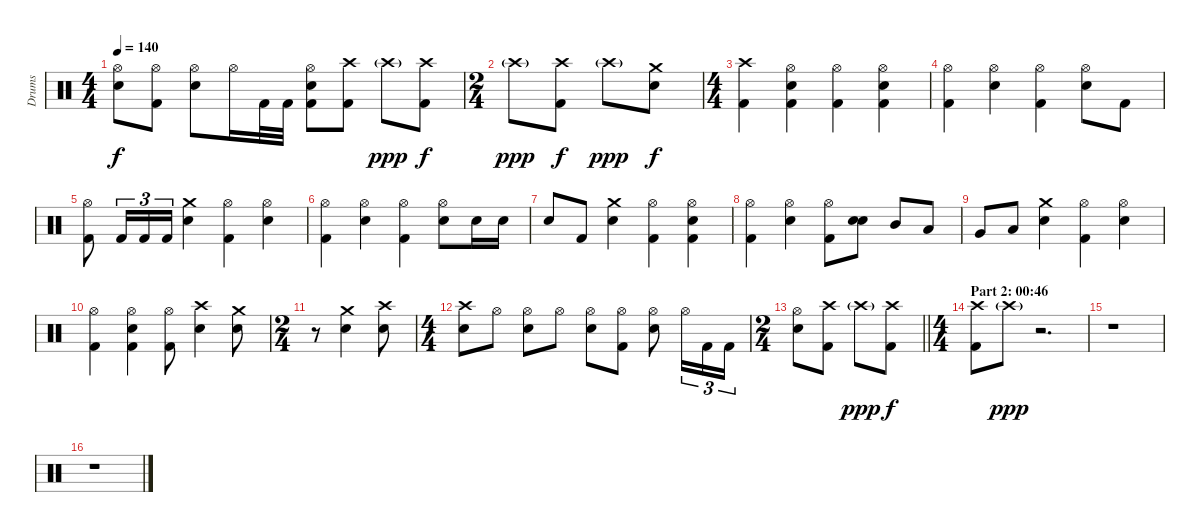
\track ("Drums" "Drums") {instrument percussion}
\staff {score}
\articulation defaults
\ts (4 4)
\tempo 140
\clef neutral
\ks c
("Hi-Hat (open)" "Electric Snare (hit)").8{dy f} ("Hi-Hat (open)" "Kick (hit) 2").8 ("Hi-Hat (open)" "Electric Snare (hit)").8 "Hi-Hat (open)".16 "Kick (hit) 2".32 "Kick (hit) 2".32 ("Hi-Hat (open)" "Electric Snare (hit)" "Kick (hit) 2").8 ("Crash high (hit)" "Kick (hit) 2").8 "Crash high (hit)"{g}.8{dy ppp} ("Crash high (hit)" "Kick (hit) 2").8{dy f} |
\ts (2 4)
"Crash high (hit)"{g}.8{dy ppp} ("Crash high (hit)" "Kick (hit) 2").8{dy f} "Crash high (hit)"{g}.8{dy ppp} ("Crash medium (hit)" "Electric Snare (hit)").8{dy f} |
\ts (4 4)
("Crash high (hit)" "Kick (hit) 2").4 ("Hi-Hat (open)" "Electric Snare (hit)" "Kick (hit) 2").4 ("Hi-Hat (open)" "Kick (hit) 2").4 ("Hi-Hat (open)" "Electric Snare (hit)" "Kick (hit) 2").4 |
("Hi-Hat (open)" "Kick (hit) 2").4 ("Hi-Hat (open)" "Electric Snare (hit)").4 ("Hi-Hat (open)" "Kick (hit) 2").4 ("Hi-Hat (open)" "Electric Snare (hit)").8 "Kick (hit) 2".8 |
("Hi-Hat (open)" "Kick (hit) 2").8 "Kick (hit) 2".16{tu (3 2)} "Kick (hit) 2".16{tu (3 2)} "Kick (hit) 2".16{tu (3 2)} ("Crash medium (hit)" "Electric Snare (hit)").4 ("Hi-Hat (open)" "Kick (hit) 2").4 ("Hi-Hat (open)" "Electric Snare (hit)").4 |
("Hi-Hat (open)" "Kick (hit) 2").4 ("Hi-Hat (open)" "Electric Snare (hit)").4 ("Hi-Hat (open)" "Kick (hit) 2").4 ("Hi-Hat (open)" "Electric Snare (hit)").8 "Electric Snare (hit)".16 "Electric Snare (hit)".16 |
"Electric Snare (hit)".8 "Kick (hit) 2".8 ("Crash medium (hit)" "Electric Snare (hit)").4 ("Hi-Hat (open)" "Kick (hit) 2").4 ("Hi-Hat (open)" "Electric Snare (hit)" "Kick (hit) 2").4 |
("Hi-Hat (open)" "Kick (hit) 2").4 ("Hi-Hat (open)" "Electric Snare (hit)").4 ("Hi-Hat (open)" "Kick (hit) 2").8 ("Electric Snare (hit)" "Electric Snare (hit)").8{bd 240} "Mid Tom (hit)".8 "Low Tom (hit)".8 |
"Very Low Tom (hit)".8 "Low Floor Tom (hit)".8 ("Crash medium (hit)" "Electric Snare (hit)").4 ("Hi-Hat (open)" "Kick (hit) 2").4 ("Hi-Hat (open)" "Electric Snare (hit)").4 |
("Hi-Hat (open)" "Kick (hit) 2").4 ("Hi-Hat (open)" "Electric Snare (hit)" "Kick (hit) 2").4 ("Hi-Hat (open)" "Kick (hit) 2").8 ("Crash high (hit)" "Electric Snare (hit)").4 ("Crash medium (hit)" "Electric Snare (hit)").8 |
\ts (2 4)
r.8 ("Crash medium (hit)" "Electric Snare (hit)").4 ("Crash high (hit)" "Electric Snare (hit)").8 |
\ts (4 4)
("Crash high (hit)" "Electric Snare (hit)").8 "Hi-Hat (open)".8 ("Hi-Hat (open)" "Electric Snare (hit)").8 "Hi-Hat (open)".8 ("Hi-Hat (open)" "Electric Snare (hit)").8 ("Hi-Hat (open)" "Kick (hit) 2").8 ("Hi-Hat (open)" "Electric Snare (hit)").8 "Hi-Hat (open)".16{tu (3 2)} "Kick (hit) 2".16{tu (3 2)} "Kick (hit) 2".16{tu (3 2)} |
\ts (2 4)
\barLineRight lightlight
("Hi-Hat (open)" "Electric Snare (hit)").8 ("Crash high (hit)" "Kick (hit) 2").8 "Crash high (hit)"{g}.8{dy ppp} ("Crash high (hit)" "Kick (hit) 2").8{dy f} |
\ts (4 4)
\section ("" "Part 2: 00:46")
("Crash high (hit)" "Kick (hit) 2").8 "Crash high (hit)"{g}.8{dy ppp} r.2{d} |
r.1 |
r.1
